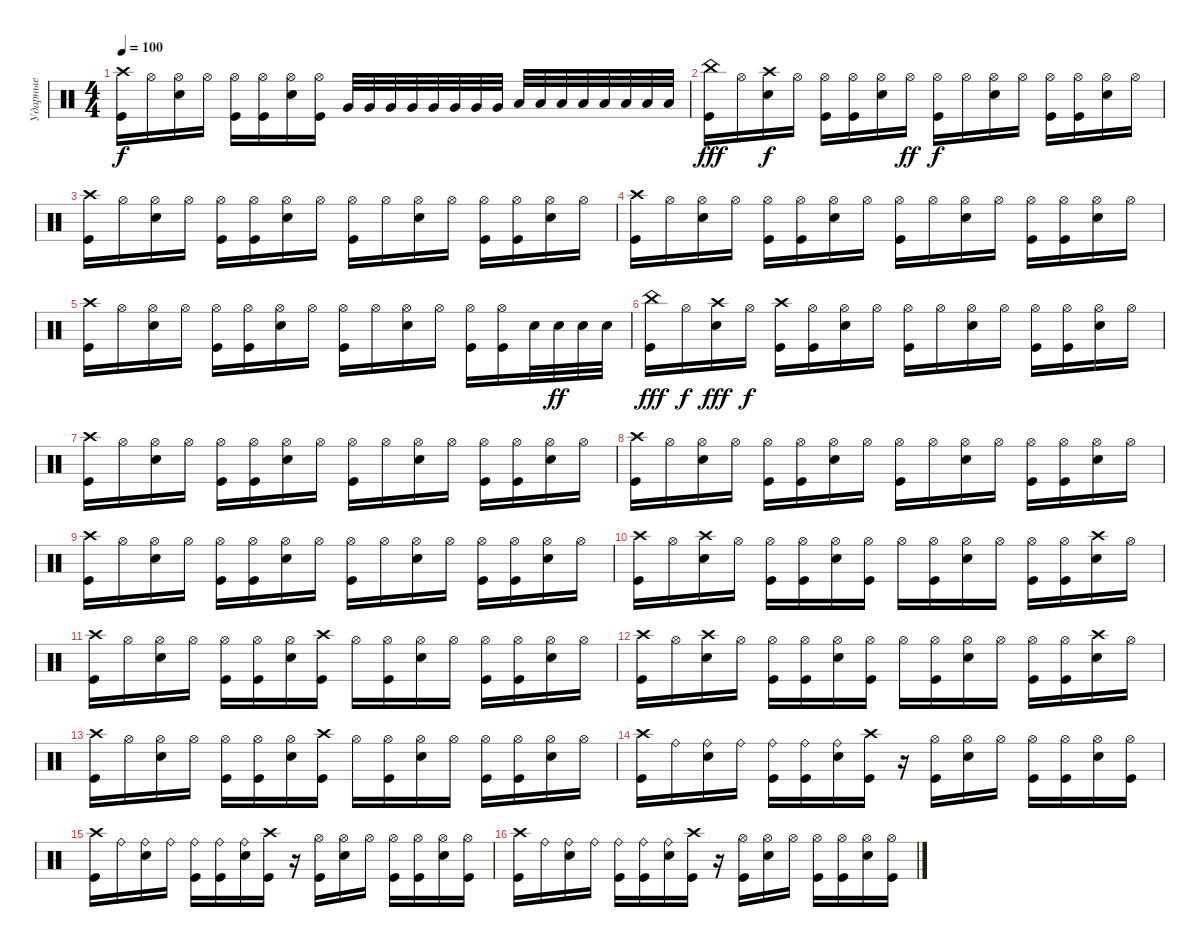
\track ("Ударные" "Ударные") {instrument percussion}
\staff {score}
\articulation defaults
\ts (4 4)
\tempo 100
\clef neutral
\ks c
("Crash high (hit)" "Kick (hit)").16{dy f} "Hi-Hat (open)".16 ("Hi-Hat (open)" "Snare (hit) 2").16 "Hi-Hat (open)".16 ("Hi-Hat (open)" "Kick (hit)").16 ("Hi-Hat (open)" "Kick (hit)").16 ("Hi-Hat (open)" "Snare (hit) 2").16 ("Hi-Hat (open)" "Kick (hit)").16 "Very Low Tom (hit)".32 "Very Low Tom (hit)".32 "Very Low Tom (hit)".32 "Very Low Tom (hit)".32 "Very Low Tom (hit)".32 "Very Low Tom (hit)".32 "Very Low Tom (hit)".32 "Very Low Tom (hit)".32 "Low Floor Tom (hit)".32 "Low Floor Tom (hit)".32 "Low Floor Tom (hit)".32 "Low Floor Tom (hit)".32 "Low Floor Tom (hit)".32 "Low Floor Tom (hit)".32 "Low Floor Tom (hit)".32 "Low Floor Tom (hit)".32 |
("China (hit)" "Kick (hit)").16{dy fff} "Hi-Hat (open)".16 ("Crash high (hit)" "Electric Snare (hit)").16{dy f} "Hi-Hat (open)".16 ("Hi-Hat (open)" "Kick (hit)").16 ("Hi-Hat (open)" "Kick (hit)").16 ("Hi-Hat (open)" "Electric Snare (hit)").16 "Hi-Hat (open)".16{dy ff} ("Hi-Hat (open)" "Kick (hit)").16{dy f} "Hi-Hat (open)".16 ("Hi-Hat (open)" "Electric Snare (hit)").16 "Hi-Hat (open)".16 ("Hi-Hat (open)" "Kick (hit)").16 ("Hi-Hat (open)" "Kick (hit)").16 ("Hi-Hat (open)" "Electric Snare (hit)").16 "Hi-Hat (open)".16 |
("Crash high (hit)" "Kick (hit)").16 "Hi-Hat (open)".16 ("Hi-Hat (open)" "Electric Snare (hit)").16 "Hi-Hat (open)".16 ("Hi-Hat (open)" "Kick (hit)").16 ("Hi-Hat (open)" "Kick (hit)").16 ("Hi-Hat (open)" "Electric Snare (hit)").16 "Hi-Hat (open)".16 ("Hi-Hat (open)" "Kick (hit)").16 "Hi-Hat (open)".16 ("Hi-Hat (open)" "Electric Snare (hit)").16 "Hi-Hat (open)".16 ("Hi-Hat (open)" "Kick (hit)").16 ("Hi-Hat (open)" "Kick (hit)").16 ("Hi-Hat (open)" "Electric Snare (hit)").16 "Hi-Hat (open)".16 |
("Crash high (hit)" "Kick (hit)").16 "Hi-Hat (open)".16 ("Hi-Hat (open)" "Electric Snare (hit)").16 "Hi-Hat (open)".16 ("Hi-Hat (open)" "Kick (hit)").16 ("Hi-Hat (open)" "Kick (hit)").16 ("Hi-Hat (open)" "Electric Snare (hit)").16 "Hi-Hat (open)".16 ("Hi-Hat (open)" "Kick (hit)").16 "Hi-Hat (open)".16 ("Hi-Hat (open)" "Electric Snare (hit)").16 "Hi-Hat (open)".16 ("Hi-Hat (open)" "Kick (hit)").16 ("Hi-Hat (open)" "Kick (hit)").16 ("Hi-Hat (open)" "Electric Snare (hit)").16 "Hi-Hat (open)".16 |
("Crash high (hit)" "Kick (hit)").16 "Hi-Hat (open)".16 ("Hi-Hat (open)" "Electric Snare (hit)").16 "Hi-Hat (open)".16 ("Hi-Hat (open)" "Kick (hit)").16 ("Hi-Hat (open)" "Kick (hit)").16 ("Hi-Hat (open)" "Electric Snare (hit)").16 "Hi-Hat (open)".16 ("Hi-Hat (open)" "Kick (hit)").16 "Hi-Hat (open)".16 ("Hi-Hat (open)" "Electric Snare (hit)").16 "Hi-Hat (open)".16 ("Hi-Hat (open)" "Kick (hit)").16 ("Hi-Hat (open)" "Kick (hit)").16 "Electric Snare (hit)".32 "Electric Snare (hit)".32{dy ff} "Electric Snare (hit)".32 "Electric Snare (hit)".32 |
("China (hit)" "Kick (hit)").16{dy fff} "Hi-Hat (open)".16{dy f} ("Crash high (hit)" "Electric Snare (hit)").16{dy fff} "Hi-Hat (open)".16{dy f} ("Crash high (hit)" "Kick (hit)").16 ("Hi-Hat (open)" "Kick (hit)").16 ("Hi-Hat (open)" "Electric Snare (hit)").16 "Hi-Hat (open)".16 ("Hi-Hat (open)" "Kick (hit)").16 "Hi-Hat (open)".16 ("Hi-Hat (open)" "Electric Snare (hit)").16 "Hi-Hat (open)".16 ("Hi-Hat (open)" "Kick (hit)").16 ("Hi-Hat (open)" "Kick (hit)").16 ("Hi-Hat (open)" "Electric Snare (hit)").16 "Hi-Hat (open)".16 |
("Crash high (hit)" "Kick (hit)").16 "Hi-Hat (open)".16 ("Hi-Hat (open)" "Electric Snare (hit)").16 "Hi-Hat (open)".16 ("Hi-Hat (open)" "Kick (hit)").16 ("Hi-Hat (open)" "Kick (hit)").16 ("Hi-Hat (open)" "Electric Snare (hit)").16 "Hi-Hat (open)".16 ("Hi-Hat (open)" "Kick (hit)").16 "Hi-Hat (open)".16 ("Hi-Hat (open)" "Electric Snare (hit)").16 "Hi-Hat (open)".16 ("Hi-Hat (open)" "Kick (hit)").16 ("Hi-Hat (open)" "Kick (hit)").16 ("Hi-Hat (open)" "Electric Snare (hit)").16 "Hi-Hat (open)".16 |
("Crash high (hit)" "Kick (hit)").16 "Hi-Hat (open)".16 ("Hi-Hat (open)" "Electric Snare (hit)").16 "Hi-Hat (open)".16 ("Hi-Hat (open)" "Kick (hit)").16 ("Hi-Hat (open)" "Kick (hit)").16 ("Hi-Hat (open)" "Electric Snare (hit)").16 "Hi-Hat (open)".16 ("Hi-Hat (open)" "Kick (hit)").16 "Hi-Hat (open)".16 ("Hi-Hat (open)" "Electric Snare (hit)").16 "Hi-Hat (open)".16 ("Hi-Hat (open)" "Kick (hit)").16 ("Hi-Hat (open)" "Kick (hit)").16 ("Hi-Hat (open)" "Electric Snare (hit)").16 "Hi-Hat (open)".16 |
("Crash high (hit)" "Kick (hit)").16 "Hi-Hat (open)".16 ("Hi-Hat (open)" "Electric Snare (hit)").16 "Hi-Hat (open)".16 ("Hi-Hat (open)" "Kick (hit)").16 ("Hi-Hat (open)" "Kick (hit)").16 ("Hi-Hat (open)" "Electric Snare (hit)").16 "Hi-Hat (open)".16 ("Hi-Hat (open)" "Kick (hit)").16 "Hi-Hat (open)".16 ("Hi-Hat (open)" "Electric Snare (hit)").16 "Hi-Hat (open)".16 ("Hi-Hat (open)" "Kick (hit)").16 ("Hi-Hat (open)" "Kick (hit)").16 ("Hi-Hat (open)" "Electric Snare (hit)").16 "Hi-Hat (open)".16 |
("Crash high (hit)" "Kick (hit)").16 "Hi-Hat (open)".16 ("Crash high (hit)" "Snare (hit) 2").16 "Hi-Hat (open)".16 ("Hi-Hat (open)" "Kick (hit)").16 ("Hi-Hat (open)" "Kick (hit)").16 ("Hi-Hat (open)" "Snare (hit) 2").16 ("Hi-Hat (open)" "Kick (hit)").16 "Hi-Hat (open)".16 ("Hi-Hat (open)" "Kick (hit)").16 ("Hi-Hat (open)" "Snare (hit) 2").16 "Hi-Hat (open)".16 ("Hi-Hat (open)" "Kick (hit)").16 ("Hi-Hat (open)" "Kick (hit)").16 ("Crash high (hit)" "Snare (hit) 2").16 "Hi-Hat (open)".16 |
("Crash high (hit)" "Kick (hit)").16 "Hi-Hat (open)".16 ("Hi-Hat (open)" "Snare (hit) 2").16 "Hi-Hat (open)".16 ("Hi-Hat (open)" "Kick (hit)").16 ("Hi-Hat (open)" "Kick (hit)").16 ("Hi-Hat (open)" "Snare (hit) 2").16 ("Crash high (hit)" "Kick (hit)").16 "Hi-Hat (open)".16 ("Hi-Hat (open)" "Kick (hit)").16 ("Hi-Hat (open)" "Snare (hit) 2").16 "Hi-Hat (open)".16 ("Hi-Hat (open)" "Kick (hit)").16 ("Hi-Hat (open)" "Kick (hit)").16 ("Hi-Hat (open)" "Snare (hit) 2").16 "Hi-Hat (open)".16 |
("Crash high (hit)" "Kick (hit)").16 "Hi-Hat (open)".16 ("Crash high (hit)" "Snare (hit) 2").16 "Hi-Hat (open)".16 ("Hi-Hat (open)" "Kick (hit)").16 ("Hi-Hat (open)" "Kick (hit)").16 ("Hi-Hat (open)" "Snare (hit) 2").16 ("Hi-Hat (open)" "Kick (hit)").16 "Hi-Hat (open)".16 ("Hi-Hat (open)" "Kick (hit)").16 ("Hi-Hat (open)" "Snare (hit) 2").16 "Hi-Hat (open)".16 ("Hi-Hat (open)" "Kick (hit)").16 ("Hi-Hat (open)" "Kick (hit)").16 ("Crash high (hit)" "Snare (hit) 2").16 "Hi-Hat (open)".16 |
("Crash high (hit)" "Kick (hit)").16 "Hi-Hat (open)".16 ("Hi-Hat (open)" "Snare (hit) 2").16 "Hi-Hat (open)".16 ("Hi-Hat (open)" "Kick (hit)").16 ("Hi-Hat (open)" "Kick (hit)").16 ("Hi-Hat (open)" "Snare (hit) 2").16 ("Crash high (hit)" "Kick (hit)").16 "Hi-Hat (open)".16 ("Hi-Hat (open)" "Kick (hit)").16 ("Hi-Hat (open)" "Snare (hit) 2").16 "Hi-Hat (open)".16 ("Hi-Hat (open)" "Kick (hit)").16 ("Hi-Hat (open)" "Kick (hit)").16 ("Hi-Hat (open)" "Snare (hit) 2").16 "Hi-Hat (open)".16 |
("Crash high (hit)" "Kick (hit)").16 "Ride (bell)".16 ("Ride (bell)" "Snare (hit) 2").16 "Ride (bell)".16 ("Ride (bell)" "Kick (hit)").16 ("Ride (bell)" "Kick (hit)").16 ("Ride (bell)" "Snare (hit) 2").16 ("Crash high (hit)" "Kick (hit)").16 r.16 ("Hi-Hat (open)" "Kick (hit)").16 ("Hi-Hat (open)" "Snare (hit) 2").16 "Hi-Hat (open)".16 ("Hi-Hat (open)" "Kick (hit)").16 ("Hi-Hat (open)" "Kick (hit)").16 ("Hi-Hat (open)" "Snare (hit) 2").16 ("Hi-Hat (open)" "Kick (hit)").16 |
("Crash high (hit)" "Kick (hit)").16 "Ride (bell)".16 ("Ride (bell)" "Snare (hit) 2").16 "Ride (bell)".16 ("Ride (bell)" "Kick (hit)").16 ("Ride (bell)" "Kick (hit)").16 ("Ride (bell)" "Snare (hit) 2").16 ("Crash high (hit)" "Kick (hit)").16 r.16 ("Hi-Hat (open)" "Kick (hit)").16 ("Hi-Hat (open)" "Snare (hit) 2").16 "Hi-Hat (open)".16 ("Hi-Hat (open)" "Kick (hit)").16 ("Hi-Hat (open)" "Kick (hit)").16 ("Hi-Hat (open)" "Snare (hit) 2").16 ("Hi-Hat (open)" "Kick (hit)").16 |
("Crash high (hit)" "Kick (hit)").16 "Ride (bell)".16 ("Ride (bell)" "Snare (hit) 2").16 "Ride (bell)".16 ("Ride (bell)" "Kick (hit)").16 ("Ride (bell)" "Kick (hit)").16 ("Ride (bell)" "Snare (hit) 2").16 ("Crash high (hit)" "Kick (hit)").16 r.16 ("Hi-Hat (open)" "Kick (hit)").16 ("Hi-Hat (open)" "Snare (hit) 2").16 "Hi-Hat (open)".16 ("Hi-Hat (open)" "Kick (hit)").16 ("Hi-Hat (open)" "Kick (hit)").16 ("Hi-Hat (open)" "Snare (hit) 2").16 ("Hi-Hat (open)" "Kick (hit)").16
